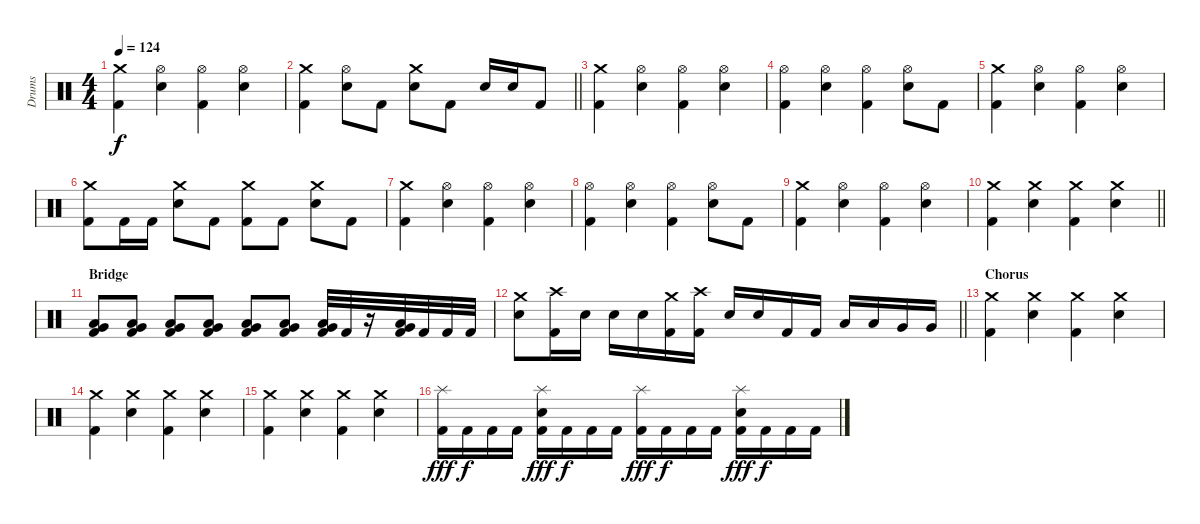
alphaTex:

\track ("Drums" "Drums") {instrument percussion}
\staff {score}
\articulation defaults
\ts (4 4)
\tempo 124
\clef neutral
\ks c
("Crash medium (hit)" "Kick (hit) 2").4{dy f} ("Hi-Hat (open)" "Electric Snare (hit)").4 ("Hi-Hat (open)" "Kick (hit) 2").4 ("Hi-Hat (open)" "Electric Snare (hit)").4 |
\barLineRight lightlight
("Crash medium (hit)" "Kick (hit) 2").4 ("Hi-Hat (open)" "Electric Snare (hit)").8 "Kick (hit) 2".8 ("Crash medium (hit)" "Electric Snare (hit)").8 "Kick (hit) 2".8 "Electric Snare (hit)".16 "Electric Snare (hit)".16 "Kick (hit) 2".8 |
("Crash medium (hit)" "Kick (hit) 2").4 ("Hi-Hat (open)" "Electric Snare (hit)").4 ("Hi-Hat (open)" "Kick (hit) 2").4 ("Hi-Hat (open)" "Electric Snare (hit)").4 |
("Hi-Hat (open)" "Kick (hit) 2").4 ("Hi-Hat (open)" "Electric Snare (hit)").4 ("Hi-Hat (open)" "Kick (hit) 2").4 ("Hi-Hat (open)" "Electric Snare (hit)").8 "Kick (hit) 2".8 |
("Crash medium (hit)" "Kick (hit) 2").4 ("Hi-Hat (open)" "Electric Snare (hit)").4 ("Hi-Hat (open)" "Kick (hit) 2").4 ("Hi-Hat (open)" "Electric Snare (hit)").4 |
("Crash medium (hit)" "Kick (hit) 2").8 "Kick (hit) 2".16 "Kick (hit) 2".16 ("Crash medium (hit)" "Electric Snare (hit)").8 "Kick (hit) 2".8 ("Crash medium (hit)" "Kick (hit) 2").8 "Kick (hit) 2".8 ("Crash medium (hit)" "Electric Snare (hit)").8 "Kick (hit) 2".8 |
("Crash medium (hit)" "Kick (hit) 2").4 ("Hi-Hat (open)" "Electric Snare (hit)").4 ("Hi-Hat (open)" "Kick (hit) 2").4 ("Hi-Hat (open)" "Electric Snare (hit)").4 |
("Hi-Hat (open)" "Kick (hit) 2").4 ("Hi-Hat (open)" "Electric Snare (hit)").4 ("Hi-Hat (open)" "Kick (hit) 2").4 ("Hi-Hat (open)" "Electric Snare (hit)").8 "Kick (hit) 2".8 |
("Crash medium (hit)" "Kick (hit) 2").4 ("Hi-Hat (open)" "Electric Snare (hit)").4 ("Hi-Hat (open)" "Kick (hit) 2").4 ("Hi-Hat (open)" "Electric Snare (hit)").4 |
\barLineRight lightlight
("Crash medium (hit)" "Kick (hit) 2").4 ("Crash medium (hit)" "Electric Snare (hit)").4 ("Crash medium (hit)" "Kick (hit) 2").4 ("Crash medium (hit)" "Electric Snare (hit)").4 |
\section ("" "Bridge")
("Low Tom (hit)" "Very Low Tom (hit)" "Kick (hit) 2").8 ("Low Tom (hit)" "Very Low Tom (hit)" "Kick (hit) 2").8 ("Low Tom (hit)" "Very Low Tom (hit)" "Kick (hit) 2").8 ("Low Tom (hit)" "Very Low Tom (hit)" "Kick (hit) 2").8 ("Low Tom (hit)" "Very Low Tom (hit)" "Kick (hit) 2").8 ("Low Tom (hit)" "Very Low Tom (hit)" "Kick (hit) 2").8 ("Low Tom (hit)" "Very Low Tom (hit)" "Kick (hit) 2").32 "Kick (hit) 2".32 r.16 ("Low Tom (hit)" "Very Low Tom (hit)" "Kick (hit) 2").32 "Kick (hit) 2".32 "Kick (hit) 2".32 "Kick (hit) 2".32 |
\barLineRight lightlight
("Crash medium (hit)" "Electric Snare (hit)").8 ("Crash high (hit)" "Kick (hit) 2").16 "Electric Snare (hit)".16 "Electric Snare (hit)".16 "Electric Snare (hit)".16 ("Crash medium (hit)" "Kick (hit) 2").16 ("Crash high (hit)" "Kick (hit) 2").16 "Electric Snare (hit)".16 "Electric Snare (hit)".16 "Kick (hit) 2".16 "Kick (hit) 2".16 "Low Tom (hit)".16 "Low Tom (hit)".16 "Very Low Tom (hit)".16 "Very Low Tom (hit)".16 |
\section ("" "Chorus")
("Crash medium (hit)" "Kick (hit) 2").4 ("Crash medium (hit)" "Electric Snare (hit)").4 ("Crash medium (hit)" "Kick (hit) 2").4 ("Crash medium (hit)" "Electric Snare (hit)").4 |
("Crash medium (hit)" "Kick (hit) 2").4 ("Crash medium (hit)" "Electric Snare (hit)").4 ("Crash medium (hit)" "Kick (hit) 2").4 ("Crash medium (hit)" "Electric Snare (hit)").4 |
("Crash medium (hit)" "Kick (hit) 2").4 ("Crash medium (hit)" "Electric Snare (hit)").4 ("Crash medium (hit)" "Kick (hit) 2").4 ("Crash medium (hit)" "Electric Snare (hit)").4 |
("Splash (hit)" "Kick (hit) 2").16{dy fff} "Kick (hit) 2".16{dy f} "Kick (hit) 2".16 "Kick (hit) 2".16 ("Splash (hit)" "Electric Snare (hit)" "Kick (hit) 2").16{dy fff} "Kick (hit) 2".16{dy f} "Kick (hit) 2".16 "Kick (hit) 2".16 ("Splash (hit)" "Kick (hit) 2").16{dy fff} "Kick (hit) 2".16{dy f} "Kick (hit) 2".16 "Kick (hit) 2".16 ("Splash (hit)" "Electric Snare (hit)" "Kick (hit) 2").16{dy fff} "Kick (hit) 2".16{dy f} "Kick (hit) 2".16 "Kick (hit) 2".16
